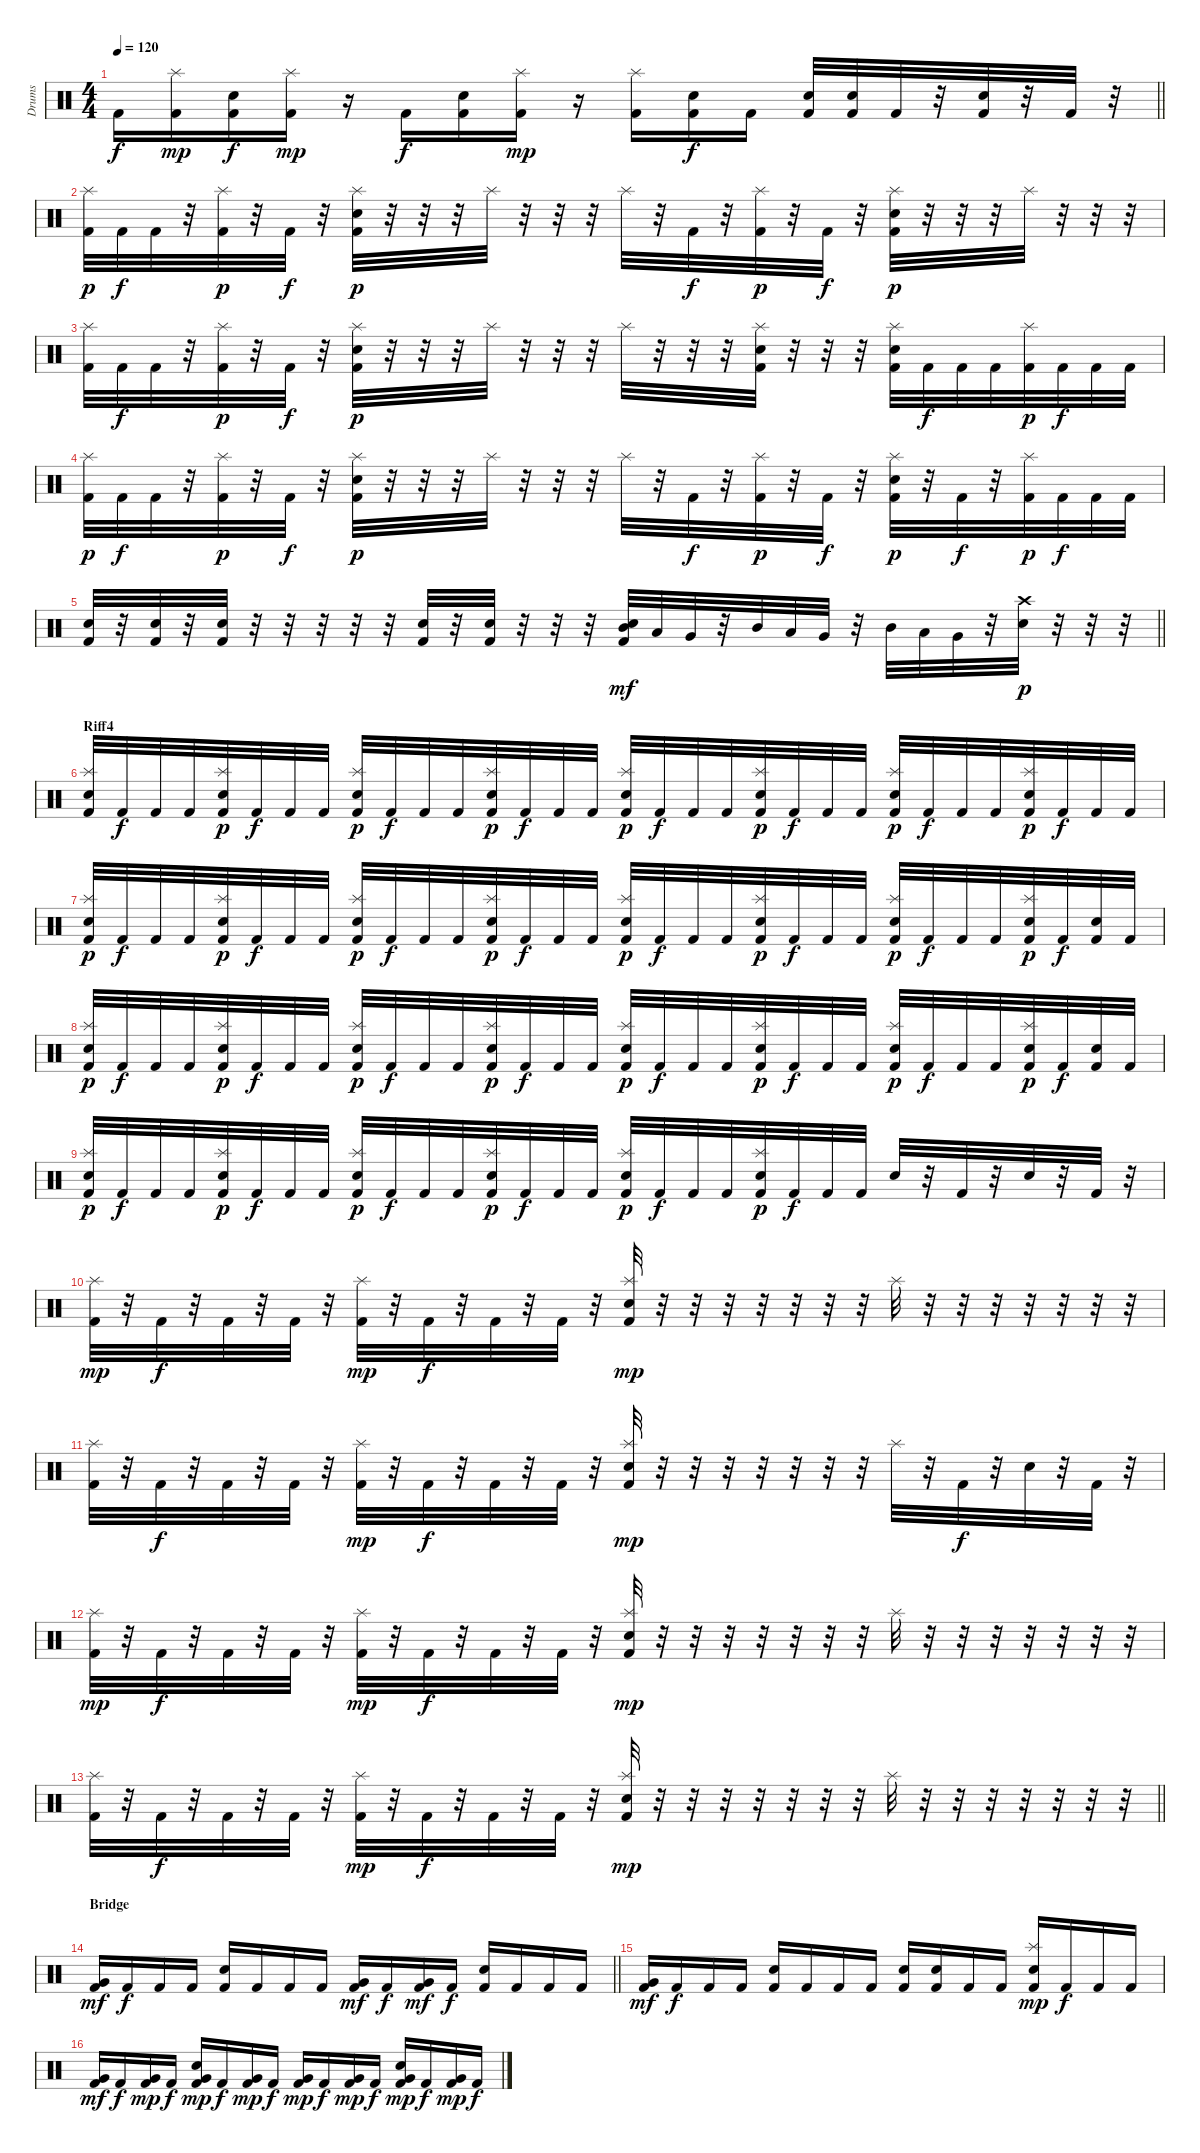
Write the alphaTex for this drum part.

\track ("Drums" "Drums") {instrument percussion}
\staff {score}
\articulation defaults
\ts (4 4)
\tempo 120
\clef neutral
\barLineRight lightlight
\ks c "Kick (hit) 2".16{dy f}
("Kick (hit) 2" "Splash (hit)").16{dy mp} ("Kick (hit) 2" "Snare (hit) 2").16{dy f} ("Kick (hit) 2" "Splash (hit)").16{dy mp} r.16 "Kick (hit) 2".16{dy f} ("Kick (hit) 2" "Snare (hit) 2").16 ("Kick (hit) 2" "Splash (hit)").16{dy mp} r.16 ("Kick (hit) 2" "Splash (hit)").16 ("Kick (hit) 2" "Snare (hit) 2").16{dy f} "Kick (hit) 2".16 ("Kick (hit) 2" "Snare (hit) 2").32 ("Kick (hit) 2" "Snare (hit) 2").32 "Kick (hit) 2".32 r.32 ("Kick (hit) 2" "Snare (hit) 2").32 r.32 "Kick (hit) 2".32 r.32 |
("Kick (hit) 2" "Splash (hit)").32{dy p} "Kick (hit) 2".32{dy f} "Kick (hit) 2".32 r.32 ("Kick (hit) 2" "Splash (hit)").32{dy p} r.32 "Kick (hit) 2".32{dy f} r.32 ("Kick (hit) 2" "Splash (hit)" "Snare (hit) 2").32{dy p} r.32 r.32 r.32 "Splash (hit)".32 r.32 r.32 r.32 "Splash (hit)".32 r.32 "Kick (hit) 2".32{dy f} r.32 ("Kick (hit) 2" "Splash (hit)").32{dy p} r.32 "Kick (hit) 2".32{dy f} r.32 ("Kick (hit) 2" "Splash (hit)" "Snare (hit) 2").32{dy p} r.32 r.32 r.32 "Splash (hit)".32 r.32 r.32 r.32 |
("Kick (hit) 2" "Splash (hit)").32 "Kick (hit) 2".32{dy f} "Kick (hit) 2".32 r.32 ("Kick (hit) 2" "Splash (hit)").32{dy p} r.32 "Kick (hit) 2".32{dy f} r.32 ("Kick (hit) 2" "Splash (hit)" "Snare (hit) 2").32{dy p} r.32 r.32 r.32 "Splash (hit)".32 r.32 r.32 r.32 "Splash (hit)".32 r.32 r.32 r.32 ("Kick (hit) 2" "Splash (hit)" "Snare (hit) 2").32 r.32 r.32 r.32 ("Kick (hit) 2" "Splash (hit)" "Snare (hit) 2").32 "Kick (hit) 2".32{dy f} "Kick (hit) 2".32 "Kick (hit) 2".32 ("Kick (hit) 2" "Splash (hit)").32{dy p} "Kick (hit) 2".32{dy f} "Kick (hit) 2".32 "Kick (hit) 2".32 |
("Kick (hit) 2" "Splash (hit)").32{dy p} "Kick (hit) 2".32{dy f} "Kick (hit) 2".32 r.32 ("Kick (hit) 2" "Splash (hit)").32{dy p} r.32 "Kick (hit) 2".32{dy f} r.32 ("Kick (hit) 2" "Splash (hit)" "Snare (hit) 2").32{dy p} r.32 r.32 r.32 "Splash (hit)".32 r.32 r.32 r.32 "Splash (hit)".32 r.32 "Kick (hit) 2".32{dy f} r.32 ("Kick (hit) 2" "Splash (hit)").32{dy p} r.32 "Kick (hit) 2".32{dy f} r.32 ("Kick (hit) 2" "Splash (hit)" "Snare (hit) 2").32{dy p} r.32 "Kick (hit) 2".32{dy f} r.32 ("Kick (hit) 2" "Splash (hit)").32{dy p} "Kick (hit) 2".32{dy f} "Kick (hit) 2".32 "Kick (hit) 2".32 |
\barLineRight lightlight
("Kick (hit) 2" "Snare (hit) 2").32 r.32 ("Kick (hit) 2" "Snare (hit) 2").32 r.32 ("Kick (hit) 2" "Snare (hit) 2").32 r.32 r.32 r.32 r.32 r.32 ("Kick (hit) 2" "Snare (hit) 2").32 r.32 ("Kick (hit) 2" "Snare (hit) 2").32 r.32 r.32 r.32 ("Kick (hit) 2" "Mid Tom (hit)" "Snare (hit) 2").32{dy mf} "Low Tom (hit)".32 "Very Low Tom (hit)".32 r.32 "Mid Tom (hit)".32 "Low Tom (hit)".32 "Very Low Tom (hit)".32 r.32 "Mid Tom (hit)".32 "Low Tom (hit)".32 "Very Low Tom (hit)".32 r.32 ("Crash high (hit)" "Snare (hit) 2").32{dy p} r.32 r.32 r.32 |
\section ("" "Riff4")
("Kick (hit) 2" "Splash (hit)" "Snare (hit) 2").32 "Kick (hit) 2".32{dy f} "Kick (hit) 2".32 "Kick (hit) 2".32 ("Kick (hit) 2" "Splash (hit)" "Snare (hit) 2").32{dy p} "Kick (hit) 2".32{dy f} "Kick (hit) 2".32 "Kick (hit) 2".32 ("Kick (hit) 2" "Splash (hit)" "Snare (hit) 2").32{dy p} "Kick (hit) 2".32{dy f} "Kick (hit) 2".32 "Kick (hit) 2".32 ("Kick (hit) 2" "Splash (hit)" "Snare (hit) 2").32{dy p} "Kick (hit) 2".32{dy f} "Kick (hit) 2".32 "Kick (hit) 2".32 ("Kick (hit) 2" "Splash (hit)" "Snare (hit) 2").32{dy p} "Kick (hit) 2".32{dy f} "Kick (hit) 2".32 "Kick (hit) 2".32 ("Kick (hit) 2" "Splash (hit)" "Snare (hit) 2").32{dy p} "Kick (hit) 2".32{dy f} "Kick (hit) 2".32 "Kick (hit) 2".32 ("Kick (hit) 2" "Splash (hit)" "Snare (hit) 2").32{dy p} "Kick (hit) 2".32{dy f} "Kick (hit) 2".32 "Kick (hit) 2".32 ("Kick (hit) 2" "Splash (hit)" "Snare (hit) 2").32{dy p} "Kick (hit) 2".32{dy f} "Kick (hit) 2".32 "Kick (hit) 2".32 |
("Kick (hit) 2" "Splash (hit)" "Snare (hit) 2").32{dy p} "Kick (hit) 2".32{dy f} "Kick (hit) 2".32 "Kick (hit) 2".32 ("Kick (hit) 2" "Splash (hit)" "Snare (hit) 2").32{dy p} "Kick (hit) 2".32{dy f} "Kick (hit) 2".32 "Kick (hit) 2".32 ("Kick (hit) 2" "Splash (hit)" "Snare (hit) 2").32{dy p} "Kick (hit) 2".32{dy f} "Kick (hit) 2".32 "Kick (hit) 2".32 ("Kick (hit) 2" "Splash (hit)" "Snare (hit) 2").32{dy p} "Kick (hit) 2".32{dy f} "Kick (hit) 2".32 "Kick (hit) 2".32 ("Kick (hit) 2" "Splash (hit)" "Snare (hit) 2").32{dy p} "Kick (hit) 2".32{dy f} "Kick (hit) 2".32 "Kick (hit) 2".32 ("Kick (hit) 2" "Splash (hit)" "Snare (hit) 2").32{dy p} "Kick (hit) 2".32{dy f} "Kick (hit) 2".32 "Kick (hit) 2".32 ("Kick (hit) 2" "Splash (hit)" "Snare (hit) 2").32{dy p} "Kick (hit) 2".32{dy f} "Kick (hit) 2".32 "Kick (hit) 2".32 ("Kick (hit) 2" "Splash (hit)" "Snare (hit) 2").32{dy p} "Kick (hit) 2".32{dy f} ("Kick (hit) 2" "Snare (hit) 2").32 "Kick (hit) 2".32 |
("Kick (hit) 2" "Splash (hit)" "Snare (hit) 2").32{dy p} "Kick (hit) 2".32{dy f} "Kick (hit) 2".32 "Kick (hit) 2".32 ("Kick (hit) 2" "Splash (hit)" "Snare (hit) 2").32{dy p} "Kick (hit) 2".32{dy f} "Kick (hit) 2".32 "Kick (hit) 2".32 ("Kick (hit) 2" "Splash (hit)" "Snare (hit) 2").32{dy p} "Kick (hit) 2".32{dy f} "Kick (hit) 2".32 "Kick (hit) 2".32 ("Kick (hit) 2" "Splash (hit)" "Snare (hit) 2").32{dy p} "Kick (hit) 2".32{dy f} "Kick (hit) 2".32 "Kick (hit) 2".32 ("Kick (hit) 2" "Splash (hit)" "Snare (hit) 2").32{dy p} "Kick (hit) 2".32{dy f} "Kick (hit) 2".32 "Kick (hit) 2".32 ("Kick (hit) 2" "Splash (hit)" "Snare (hit) 2").32{dy p} "Kick (hit) 2".32{dy f} "Kick (hit) 2".32 "Kick (hit) 2".32 ("Kick (hit) 2" "Splash (hit)" "Snare (hit) 2").32{dy p} "Kick (hit) 2".32{dy f} "Kick (hit) 2".32 "Kick (hit) 2".32 ("Kick (hit) 2" "Splash (hit)" "Snare (hit) 2").32{dy p} "Kick (hit) 2".32{dy f} ("Kick (hit) 2" "Snare (hit) 2").32 "Kick (hit) 2".32 |
("Kick (hit) 2" "Splash (hit)" "Snare (hit) 2").32{dy p} "Kick (hit) 2".32{dy f} "Kick (hit) 2".32 "Kick (hit) 2".32 ("Kick (hit) 2" "Splash (hit)" "Snare (hit) 2").32{dy p} "Kick (hit) 2".32{dy f} "Kick (hit) 2".32 "Kick (hit) 2".32 ("Kick (hit) 2" "Splash (hit)" "Snare (hit) 2").32{dy p} "Kick (hit) 2".32{dy f} "Kick (hit) 2".32 "Kick (hit) 2".32 ("Kick (hit) 2" "Splash (hit)" "Snare (hit) 2").32{dy p} "Kick (hit) 2".32{dy f} "Kick (hit) 2".32 "Kick (hit) 2".32 ("Kick (hit) 2" "Splash (hit)" "Snare (hit) 2").32{dy p} "Kick (hit) 2".32{dy f} "Kick (hit) 2".32 "Kick (hit) 2".32 ("Kick (hit) 2" "Splash (hit)" "Snare (hit) 2").32{dy p} "Kick (hit) 2".32{dy f} "Kick (hit) 2".32 "Kick (hit) 2".32 "Snare (hit) 2".32 r.32 "Kick (hit) 2".32 r.32 "Snare (hit) 2".32 r.32 "Kick (hit) 2".32 r.32 |
("Kick (hit) 2" "Splash (hit)").32{dy mp} r.32 "Kick (hit) 2".32{dy f} r.32 "Kick (hit) 2".32 r.32 "Kick (hit) 2".32 r.32 ("Kick (hit) 2" "Splash (hit)").32{dy mp} r.32 "Kick (hit) 2".32{dy f} r.32 "Kick (hit) 2".32 r.32 "Kick (hit) 2".32 r.32 ("Kick (hit) 2" "Splash (hit)" "Snare (hit) 2").32{dy mp} r.32 r.32 r.32 r.32 r.32 r.32 r.32 "Splash (hit)".32 r.32 r.32 r.32 r.32 r.32 r.32 r.32 |
("Kick (hit) 2" "Splash (hit)").32 r.32 "Kick (hit) 2".32{dy f} r.32 "Kick (hit) 2".32 r.32 "Kick (hit) 2".32 r.32 ("Kick (hit) 2" "Splash (hit)").32{dy mp} r.32 "Kick (hit) 2".32{dy f} r.32 "Kick (hit) 2".32 r.32 "Kick (hit) 2".32 r.32 ("Kick (hit) 2" "Splash (hit)" "Snare (hit) 2").32{dy mp} r.32 r.32 r.32 r.32 r.32 r.32 r.32 "Splash (hit)".32 r.32 "Kick (hit) 2".32{dy f} r.32 "Snare (hit) 2".32 r.32 "Kick (hit) 2".32 r.32 |
("Kick (hit) 2" "Splash (hit)").32{dy mp} r.32 "Kick (hit) 2".32{dy f} r.32 "Kick (hit) 2".32 r.32 "Kick (hit) 2".32 r.32 ("Kick (hit) 2" "Splash (hit)").32{dy mp} r.32 "Kick (hit) 2".32{dy f} r.32 "Kick (hit) 2".32 r.32 "Kick (hit) 2".32 r.32 ("Kick (hit) 2" "Splash (hit)" "Snare (hit) 2").32{dy mp} r.32 r.32 r.32 r.32 r.32 r.32 r.32 "Splash (hit)".32 r.32 r.32 r.32 r.32 r.32 r.32 r.32 |
\barLineRight lightlight
("Kick (hit) 2" "Splash (hit)").32 r.32 "Kick (hit) 2".32{dy f} r.32 "Kick (hit) 2".32 r.32 "Kick (hit) 2".32 r.32 ("Kick (hit) 2" "Splash (hit)").32{dy mp} r.32 "Kick (hit) 2".32{dy f} r.32 "Kick (hit) 2".32 r.32 "Kick (hit) 2".32 r.32 ("Kick (hit) 2" "Splash (hit)" "Snare (hit) 2").32{dy mp} r.32 r.32 r.32 r.32 r.32 r.32 r.32 "Splash (hit)".32 r.32 r.32 r.32 r.32 r.32 r.32 r.32 |
\section ("" "Bridge")
\barLineRight lightlight
("Kick (hit) 2" "Very Low Tom (hit)").16{dy mf} "Kick (hit) 2".16{dy f} "Kick (hit) 2".16 "Kick (hit) 2".16 ("Kick (hit) 2" "Snare (hit) 2").16 "Kick (hit) 2".16 "Kick (hit) 2".16 "Kick (hit) 2".16 ("Kick (hit) 2" "Very Low Tom (hit)").16{dy mf} "Kick (hit) 2".16{dy f} ("Kick (hit) 2" "Very Low Tom (hit)").16{dy mf} "Kick (hit) 2".16{dy f} ("Kick (hit) 2" "Snare (hit) 2").16 "Kick (hit) 2".16 "Kick (hit) 2".16 "Kick (hit) 2".16 |
("Kick (hit) 2" "Very Low Tom (hit)").16{dy mf} "Kick (hit) 2".16{dy f} "Kick (hit) 2".16 "Kick (hit) 2".16 ("Kick (hit) 2" "Snare (hit) 2").16 "Kick (hit) 2".16 "Kick (hit) 2".16 "Kick (hit) 2".16 ("Kick (hit) 2" "Snare (hit) 2").16 ("Kick (hit) 2" "Snare (hit) 2").16 "Kick (hit) 2".16 "Kick (hit) 2".16 ("Kick (hit) 2" "Splash (hit)" "Snare (hit) 2").16{dy mp} "Kick (hit) 2".16{dy f} "Kick (hit) 2".16 "Kick (hit) 2".16 |
("Kick (hit) 2" "Very Low Tom (hit)").16{dy mf} "Kick (hit) 2".16{dy f} ("Kick (hit) 2" "Very Low Tom (hit)").16{dy mp} "Kick (hit) 2".16{dy f} ("Kick (hit) 2" "Very Low Tom (hit)" "Snare (hit) 2").16{dy mp} "Kick (hit) 2".16{dy f} ("Kick (hit) 2" "Very Low Tom (hit)").16{dy mp} "Kick (hit) 2".16{dy f} ("Kick (hit) 2" "Very Low Tom (hit)").16{dy mp} "Kick (hit) 2".16{dy f} ("Kick (hit) 2" "Very Low Tom (hit)").16{dy mp} "Kick (hit) 2".16{dy f} ("Kick (hit) 2" "Very Low Tom (hit)" "Snare (hit) 2").16{dy mp} "Kick (hit) 2".16{dy f} ("Kick (hit) 2" "Very Low Tom (hit)").16{dy mp} "Kick (hit) 2".16{dy f}
